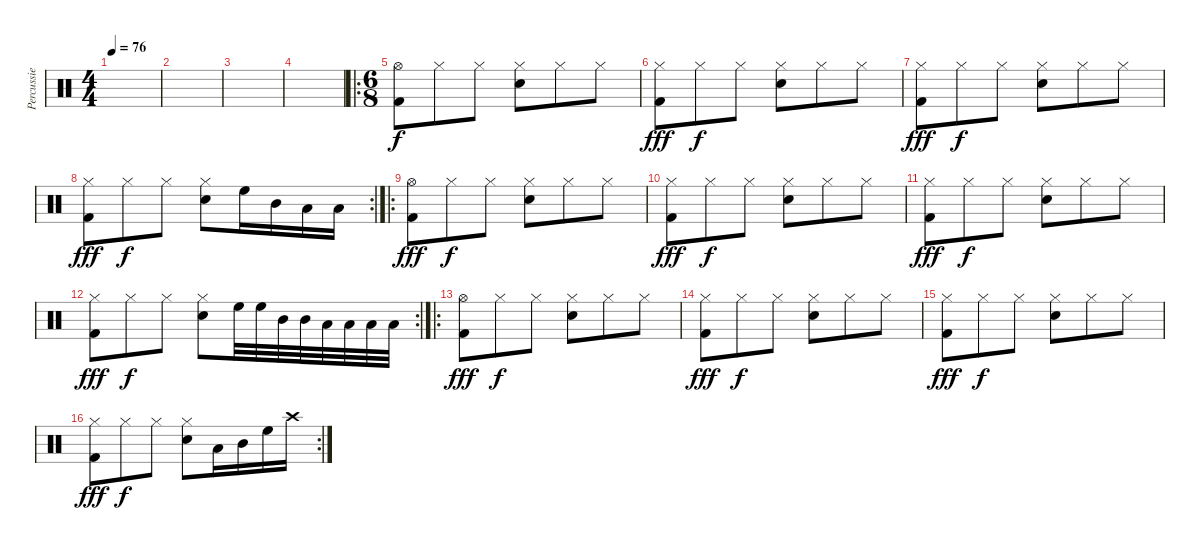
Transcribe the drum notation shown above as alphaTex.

\track ("Percussie" "Percussie") {instrument percussion}
\staff {score}
\articulation defaults
\ts (4 4)
\tempo 76
\clef neutral
\ks c
|
|
|
|
\ro
\ts (6 8)
("Kick (hit) 2" "Hi-Hat (open)").8 "Hi-Hat (closed)".8{dy f} "Hi-Hat (closed)".8 ("Snare (hit) 2" "Hi-Hat (closed)").8 "Hi-Hat (closed)".8 "Hi-Hat (closed)".8 |
("Kick (hit) 2" "Hi-Hat (closed)").8{dy fff} "Hi-Hat (closed)".8{dy f} "Hi-Hat (closed)".8 ("Snare (hit) 2" "Hi-Hat (closed)").8 "Hi-Hat (closed)".8 "Hi-Hat (closed)".8 |
("Kick (hit) 2" "Hi-Hat (closed)").8{dy fff} "Hi-Hat (closed)".8{dy f} "Hi-Hat (closed)".8 ("Snare (hit) 2" "Hi-Hat (closed)").8 "Hi-Hat (closed)".8 "Hi-Hat (closed)".8 |
\rc 2
("Kick (hit) 2" "Hi-Hat (closed)").8{dy fff} "Hi-Hat (closed)".8{dy f} "Hi-Hat (closed)".8 ("Snare (hit) 2" "Hi-Hat (closed)").8 "High Floor Tom (hit)".16 "Mid Tom (hit)".16 "Low Tom (hit)".16 "Low Floor Tom (hit)".16 |
\ro
("Kick (hit) 2" "Hi-Hat (open)").8{dy fff} "Hi-Hat (closed)".8{dy f} "Hi-Hat (closed)".8 ("Snare (hit) 2" "Hi-Hat (closed)").8 "Hi-Hat (closed)".8 "Hi-Hat (closed)".8 |
("Kick (hit) 2" "Hi-Hat (closed)").8{dy fff} "Hi-Hat (closed)".8{dy f} "Hi-Hat (closed)".8 ("Snare (hit) 2" "Hi-Hat (closed)").8 "Hi-Hat (closed)".8 "Hi-Hat (closed)".8 |
("Kick (hit) 2" "Hi-Hat (closed)").8{dy fff} "Hi-Hat (closed)".8{dy f} "Hi-Hat (closed)".8 ("Snare (hit) 2" "Hi-Hat (closed)").8 "Hi-Hat (closed)".8 "Hi-Hat (closed)".8 |
\rc 2
("Kick (hit) 2" "Hi-Hat (closed)").8{dy fff} "Hi-Hat (closed)".8{dy f} "Hi-Hat (closed)".8 ("Snare (hit) 2" "Hi-Hat (closed)").8 "High Floor Tom (hit)".32 "High Floor Tom (hit)".32 "Mid Tom (hit)".32 "Mid Tom (hit)".32 "Low Tom (hit)".32 "Low Tom (hit)".32 "Low Floor Tom (hit)".32 "Low Floor Tom (hit)".32 |
\ro
("Kick (hit) 2" "Hi-Hat (open)").8{dy fff} "Hi-Hat (closed)".8{dy f} "Hi-Hat (closed)".8 ("Snare (hit) 2" "Hi-Hat (closed)").8 "Hi-Hat (closed)".8 "Hi-Hat (closed)".8 |
("Kick (hit) 2" "Hi-Hat (closed)").8{dy fff} "Hi-Hat (closed)".8{dy f} "Hi-Hat (closed)".8 ("Snare (hit) 2" "Hi-Hat (closed)").8 "Hi-Hat (closed)".8 "Hi-Hat (closed)".8 |
("Kick (hit) 2" "Hi-Hat (closed)").8{dy fff} "Hi-Hat (closed)".8{dy f} "Hi-Hat (closed)".8 ("Snare (hit) 2" "Hi-Hat (closed)").8 "Hi-Hat (closed)".8 "Hi-Hat (closed)".8 |
\rc 2
("Kick (hit) 2" "Hi-Hat (closed)").8{dy fff} "Hi-Hat (closed)".8{dy f} "Hi-Hat (closed)".8 ("Snare (hit) 2" "Hi-Hat (closed)").8 "Low Floor Tom (hit)".16 "Mid Tom (hit)".16 "High Floor Tom (hit)".16 "Crash high (hit)".16
